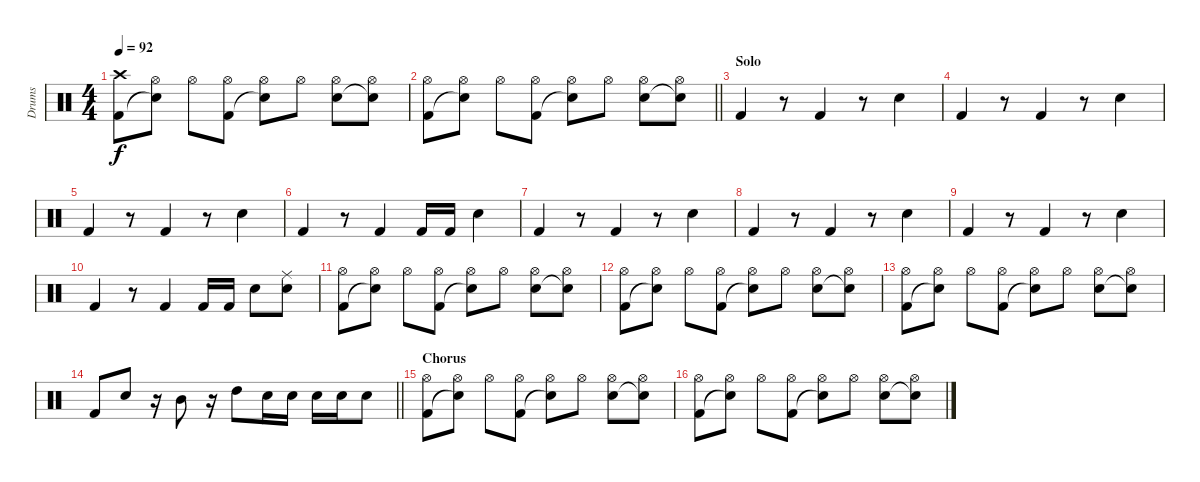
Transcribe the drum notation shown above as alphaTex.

\track ("Drums" "Drums") {instrument percussion}
\staff {score}
\articulation defaults
\ts (4 4)
\tempo 92
\clef neutral
\ks c
("Crash high (hit)" "Kick (hit) 2").8{dy f} ("Hi-Hat (open)" "Snare (hit)"{t}).8 "Hi-Hat (open)".8 ("Hi-Hat (open)" "Kick (hit) 2").8 ("Hi-Hat (open)" "Snare (hit)"{t}).8 "Hi-Hat (open)".8 ("Hi-Hat (open)" "Snare (hit) 2").8 ("Hi-Hat (open)" "Snare (hit)"{t}).8 |
\barLineRight lightlight
("Hi-Hat (open)" "Kick (hit) 2").8 ("Hi-Hat (open)" "Snare (hit)"{t}).8 "Hi-Hat (open)".8 ("Hi-Hat (open)" "Kick (hit) 2").8 ("Hi-Hat (open)" "Snare (hit)"{t}).8 "Hi-Hat (open)".8 ("Hi-Hat (open)" "Snare (hit) 2").8 ("Hi-Hat (open)" "Snare (hit)"{t}).8 |
\section ("" "Solo")
"Kick (hit) 2".4 r.8 "Kick (hit) 2".4 r.8 "Snare (hit) 2".4 |
"Kick (hit) 2".4 r.8 "Kick (hit) 2".4 r.8 "Snare (hit) 2".4 |
"Kick (hit) 2".4 r.8 "Kick (hit) 2".4 r.8 "Snare (hit) 2".4 |
"Kick (hit) 2".4 r.8 "Kick (hit) 2".4 "Kick (hit) 2".16 "Kick (hit) 2".16 "Snare (hit) 2".4 |
"Kick (hit) 2".4 r.8 "Kick (hit) 2".4 r.8 "Snare (hit) 2".4 |
"Kick (hit) 2".4 r.8 "Kick (hit) 2".4 r.8 "Snare (hit) 2".4 |
"Kick (hit) 2".4 r.8 "Kick (hit) 2".4 r.8 "Snare (hit) 2".4 |
"Kick (hit) 2".4 r.8 "Kick (hit) 2".4 "Kick (hit) 2".16 "Kick (hit) 2".16 "Snare (hit) 2".8 ("Ride (middle)" "Snare (hit)").8 |
("Hi-Hat (open)" "Kick (hit) 2").8 ("Hi-Hat (open)" "Snare (hit)"{t}).8 "Hi-Hat (open)".8 ("Hi-Hat (open)" "Kick (hit) 2").8 ("Hi-Hat (open)" "Snare (hit)"{t}).8 "Hi-Hat (open)".8 ("Hi-Hat (open)" "Snare (hit) 2").8 ("Hi-Hat (open)" "Snare (hit)"{t}).8 |
("Hi-Hat (open)" "Kick (hit) 2").8 ("Hi-Hat (open)" "Snare (hit)"{t}).8 "Hi-Hat (open)".8 ("Hi-Hat (open)" "Kick (hit) 2").8 ("Hi-Hat (open)" "Snare (hit)"{t}).8 "Hi-Hat (open)".8 ("Hi-Hat (open)" "Snare (hit) 2").8 ("Hi-Hat (open)" "Snare (hit)"{t}).8 |
("Hi-Hat (open)" "Kick (hit) 2").8 ("Hi-Hat (open)" "Snare (hit)"{t}).8 "Hi-Hat (open)".8 ("Hi-Hat (open)" "Kick (hit) 2").8 ("Hi-Hat (open)" "Snare (hit)"{t}).8 "Hi-Hat (open)".8 ("Hi-Hat (open)" "Snare (hit) 2").8 ("Hi-Hat (open)" "Snare (hit)"{t}).8 |
\barLineRight lightlight "Kick (hit) 2".8 "Snare (hit) 2".8
r.16 "Mid Tom (hit)".8 r.16 "High Tom (hit)".8 "Snare (hit) 2".16 "Snare (hit) 2".16 "Snare (hit) 2".16 "Snare (hit) 2".16 "Snare (hit) 2".8 |
\section ("" "Chorus")
("Hi-Hat (open)" "Kick (hit) 2").8 ("Hi-Hat (open)" "Snare (hit)"{t}).8 "Hi-Hat (open)".8 ("Hi-Hat (open)" "Kick (hit) 2").8 ("Hi-Hat (open)" "Snare (hit)"{t}).8 "Hi-Hat (open)".8 ("Hi-Hat (open)" "Snare (hit) 2").8 ("Hi-Hat (open)" "Snare (hit)"{t}).8 |
("Hi-Hat (open)" "Kick (hit) 2").8 ("Hi-Hat (open)" "Snare (hit)"{t}).8 "Hi-Hat (open)".8 ("Hi-Hat (open)" "Kick (hit) 2").8 ("Hi-Hat (open)" "Snare (hit)"{t}).8 "Hi-Hat (open)".8 ("Hi-Hat (open)" "Snare (hit) 2").8 ("Hi-Hat (open)" "Snare (hit)"{t}).8
